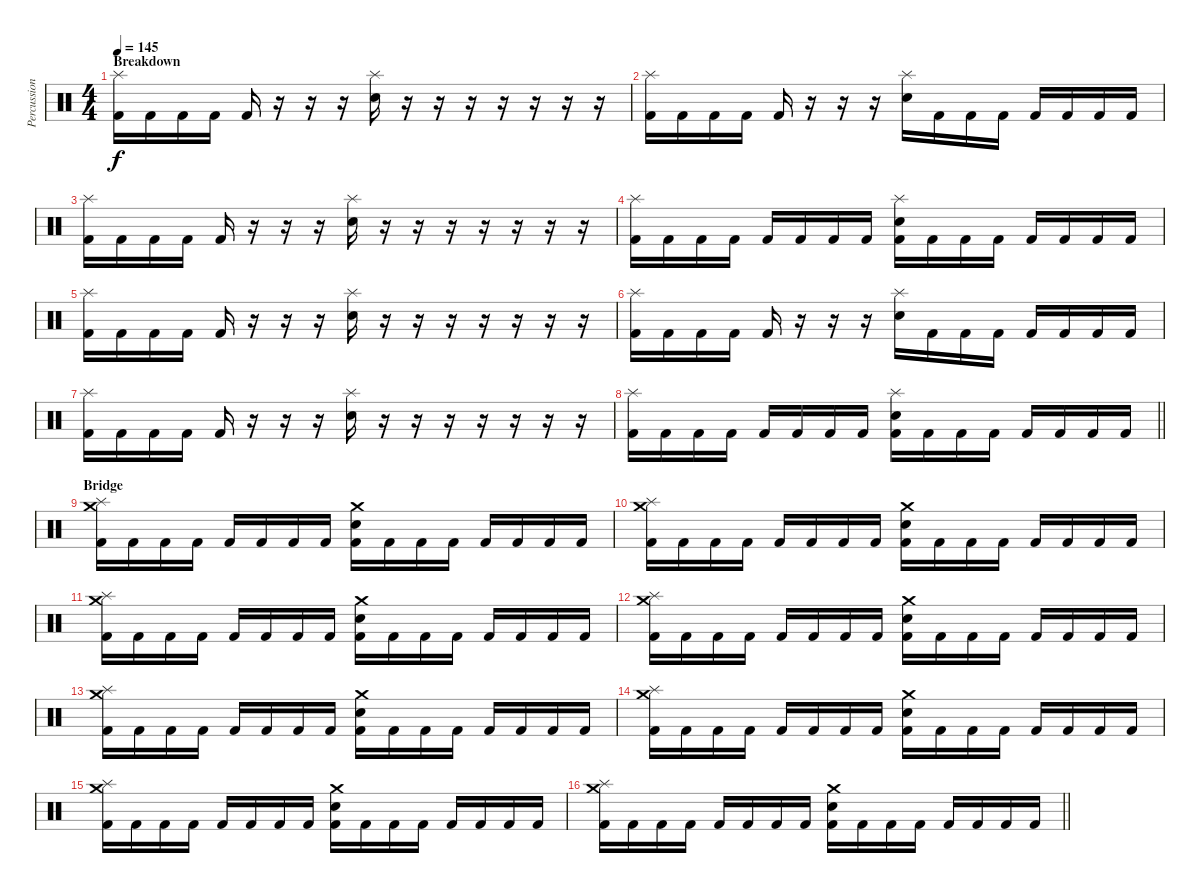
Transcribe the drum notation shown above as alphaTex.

\track ("Percussion" "Percussion") {instrument percussion}
\staff {score}
\articulation defaults
\ts (4 4)
\section ("" "Breakdown")
\tempo 145
\clef neutral
\ks aminor
("Splash (hit)" "Kick (hit) 2").16{dy f} "Kick (hit) 2".16 "Kick (hit) 2".16 "Kick (hit) 2".16 "Kick (hit) 2".16 r.16 r.16 r.16 ("Splash (hit)" "Electric Snare (hit)").16 r.16 r.16 r.16 r.16 r.16 r.16 r.16 |
("Splash (hit)" "Kick (hit) 2").16 "Kick (hit) 2".16 "Kick (hit) 2".16 "Kick (hit) 2".16 "Kick (hit) 2".16 r.16 r.16 r.16 ("Splash (hit)" "Electric Snare (hit)").16 "Kick (hit) 2".16 "Kick (hit) 2".16 "Kick (hit) 2".16 "Kick (hit) 2".16 "Kick (hit) 2".16 "Kick (hit) 2".16 "Kick (hit) 2".16 |
("Splash (hit)" "Kick (hit) 2").16 "Kick (hit) 2".16 "Kick (hit) 2".16 "Kick (hit) 2".16 "Kick (hit) 2".16 r.16 r.16 r.16 ("Splash (hit)" "Electric Snare (hit)").16 r.16 r.16 r.16 r.16 r.16 r.16 r.16 |
("Splash (hit)" "Kick (hit) 2").16 "Kick (hit) 2".16 "Kick (hit) 2".16 "Kick (hit) 2".16 "Kick (hit) 2".16 "Kick (hit) 2".16 "Kick (hit) 2".16 "Kick (hit) 2".16 ("Splash (hit)" "Electric Snare (hit)" "Kick (hit) 2").16 "Kick (hit) 2".16 "Kick (hit) 2".16 "Kick (hit) 2".16 "Kick (hit) 2".16 "Kick (hit) 2".16 "Kick (hit) 2".16 "Kick (hit) 2".16 |
("Splash (hit)" "Kick (hit) 2").16 "Kick (hit) 2".16 "Kick (hit) 2".16 "Kick (hit) 2".16 "Kick (hit) 2".16 r.16 r.16 r.16 ("Splash (hit)" "Electric Snare (hit)").16 r.16 r.16 r.16 r.16 r.16 r.16 r.16 |
("Splash (hit)" "Kick (hit) 2").16 "Kick (hit) 2".16 "Kick (hit) 2".16 "Kick (hit) 2".16 "Kick (hit) 2".16 r.16 r.16 r.16 ("Splash (hit)" "Electric Snare (hit)").16 "Kick (hit) 2".16 "Kick (hit) 2".16 "Kick (hit) 2".16 "Kick (hit) 2".16 "Kick (hit) 2".16 "Kick (hit) 2".16 "Kick (hit) 2".16 |
("Splash (hit)" "Kick (hit) 2").16 "Kick (hit) 2".16 "Kick (hit) 2".16 "Kick (hit) 2".16 "Kick (hit) 2".16 r.16 r.16 r.16 ("Splash (hit)" "Electric Snare (hit)").16 r.16 r.16 r.16 r.16 r.16 r.16 r.16 |
\barLineRight lightlight
("Splash (hit)" "Kick (hit) 2").16 "Kick (hit) 2".16 "Kick (hit) 2".16 "Kick (hit) 2".16 "Kick (hit) 2".16 "Kick (hit) 2".16 "Kick (hit) 2".16 "Kick (hit) 2".16 ("Splash (hit)" "Electric Snare (hit)" "Kick (hit) 2").16 "Kick (hit) 2".16 "Kick (hit) 2".16 "Kick (hit) 2".16 "Kick (hit) 2".16 "Kick (hit) 2".16 "Kick (hit) 2".16 "Kick (hit) 2".16 |
\section ("" "Bridge")
("Crash medium (hit)" "Splash (hit)" "Kick (hit) 2").16 "Kick (hit) 2".16 "Kick (hit) 2".16 "Kick (hit) 2".16 "Kick (hit) 2".16 "Kick (hit) 2".16 "Kick (hit) 2".16 "Kick (hit) 2".16 ("Crash medium (hit)" "Electric Snare (hit)" "Kick (hit) 2").16 "Kick (hit) 2".16 "Kick (hit) 2".16 "Kick (hit) 2".16 "Kick (hit) 2".16 "Kick (hit) 2".16 "Kick (hit) 2".16 "Kick (hit) 2".16 |
("Crash medium (hit)" "Splash (hit)" "Kick (hit) 2").16 "Kick (hit) 2".16 "Kick (hit) 2".16 "Kick (hit) 2".16 "Kick (hit) 2".16 "Kick (hit) 2".16 "Kick (hit) 2".16 "Kick (hit) 2".16 ("Crash medium (hit)" "Electric Snare (hit)" "Kick (hit) 2").16 "Kick (hit) 2".16 "Kick (hit) 2".16 "Kick (hit) 2".16 "Kick (hit) 2".16 "Kick (hit) 2".16 "Kick (hit) 2".16 "Kick (hit) 2".16 |
("Crash medium (hit)" "Splash (hit)" "Kick (hit) 2").16 "Kick (hit) 2".16 "Kick (hit) 2".16 "Kick (hit) 2".16 "Kick (hit) 2".16 "Kick (hit) 2".16 "Kick (hit) 2".16 "Kick (hit) 2".16 ("Crash medium (hit)" "Electric Snare (hit)" "Kick (hit) 2").16 "Kick (hit) 2".16 "Kick (hit) 2".16 "Kick (hit) 2".16 "Kick (hit) 2".16 "Kick (hit) 2".16 "Kick (hit) 2".16 "Kick (hit) 2".16 |
("Crash medium (hit)" "Splash (hit)" "Kick (hit) 2").16 "Kick (hit) 2".16 "Kick (hit) 2".16 "Kick (hit) 2".16 "Kick (hit) 2".16 "Kick (hit) 2".16 "Kick (hit) 2".16 "Kick (hit) 2".16 ("Crash medium (hit)" "Electric Snare (hit)" "Kick (hit) 2").16 "Kick (hit) 2".16 "Kick (hit) 2".16 "Kick (hit) 2".16 "Kick (hit) 2".16 "Kick (hit) 2".16 "Kick (hit) 2".16 "Kick (hit) 2".16 |
("Crash medium (hit)" "Splash (hit)" "Kick (hit) 2").16 "Kick (hit) 2".16 "Kick (hit) 2".16 "Kick (hit) 2".16 "Kick (hit) 2".16 "Kick (hit) 2".16 "Kick (hit) 2".16 "Kick (hit) 2".16 ("Crash medium (hit)" "Electric Snare (hit)" "Kick (hit) 2").16 "Kick (hit) 2".16 "Kick (hit) 2".16 "Kick (hit) 2".16 "Kick (hit) 2".16 "Kick (hit) 2".16 "Kick (hit) 2".16 "Kick (hit) 2".16 |
("Crash medium (hit)" "Splash (hit)" "Kick (hit) 2").16 "Kick (hit) 2".16 "Kick (hit) 2".16 "Kick (hit) 2".16 "Kick (hit) 2".16 "Kick (hit) 2".16 "Kick (hit) 2".16 "Kick (hit) 2".16 ("Crash medium (hit)" "Electric Snare (hit)" "Kick (hit) 2").16 "Kick (hit) 2".16 "Kick (hit) 2".16 "Kick (hit) 2".16 "Kick (hit) 2".16 "Kick (hit) 2".16 "Kick (hit) 2".16 "Kick (hit) 2".16 |
("Crash medium (hit)" "Splash (hit)" "Kick (hit) 2").16 "Kick (hit) 2".16 "Kick (hit) 2".16 "Kick (hit) 2".16 "Kick (hit) 2".16 "Kick (hit) 2".16 "Kick (hit) 2".16 "Kick (hit) 2".16 ("Crash medium (hit)" "Electric Snare (hit)" "Kick (hit) 2").16 "Kick (hit) 2".16 "Kick (hit) 2".16 "Kick (hit) 2".16 "Kick (hit) 2".16 "Kick (hit) 2".16 "Kick (hit) 2".16 "Kick (hit) 2".16 |
\barLineRight lightlight
("Crash medium (hit)" "Splash (hit)" "Kick (hit) 2").16 "Kick (hit) 2".16 "Kick (hit) 2".16 "Kick (hit) 2".16 "Kick (hit) 2".16 "Kick (hit) 2".16 "Kick (hit) 2".16 "Kick (hit) 2".16 ("Crash medium (hit)" "Electric Snare (hit)" "Kick (hit) 2").16 "Kick (hit) 2".16 "Kick (hit) 2".16 "Kick (hit) 2".16 "Kick (hit) 2".16 "Kick (hit) 2".16 "Kick (hit) 2".16 "Kick (hit) 2".16
